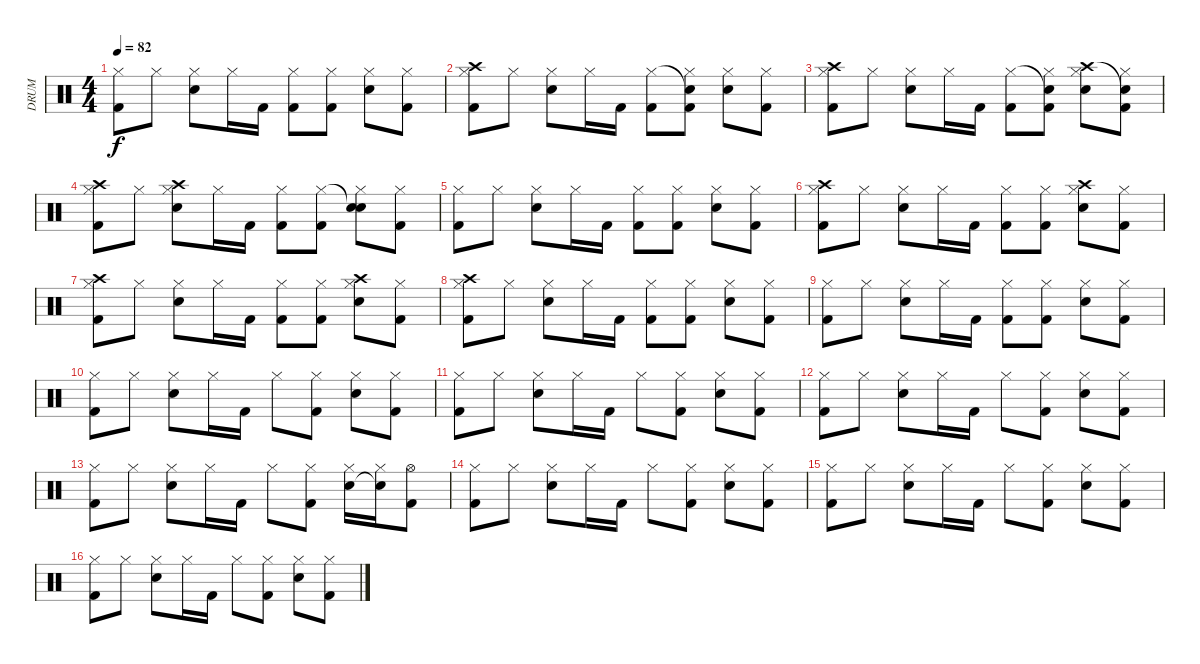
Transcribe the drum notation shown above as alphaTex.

\track ("DRUM" "DRUM") {instrument percussion}
\staff {score}
\articulation defaults
\ts (4 4)
\section ("" "")
\tempo 82
\clef neutral
\ks c
("Hi-Hat (closed)" "Kick (hit) 2").8{dy f} "Hi-Hat (closed)".8 ("Hi-Hat (closed)" "Electric Snare (hit)").8 "Hi-Hat (closed)".16 "Kick (hit) 2".16 ("Hi-Hat (closed)" "Kick (hit) 2").8 ("Hi-Hat (closed)" "Kick (hit) 2").8 ("Hi-Hat (closed)" "Electric Snare (hit)").8 ("Hi-Hat (closed)" "Kick (hit) 2").8 |
("Crash high (hit)" "Hi-Hat (closed)" "Kick (hit) 2").8 "Hi-Hat (closed)".8 ("Hi-Hat (closed)" "Electric Snare (hit)").8 "Hi-Hat (closed)".16 "Kick (hit) 2".16 ("Hi-Hat (closed)" "Kick (hit) 2").8 ("Snare (hit)"{t} "Hi-Hat (closed)" "Kick (hit) 2").8 ("Hi-Hat (closed)" "Electric Snare (hit)").8 ("Hi-Hat (closed)" "Kick (hit) 2").8 |
("Crash high (hit)" "Hi-Hat (closed)" "Kick (hit) 2").8 "Hi-Hat (closed)".8 ("Hi-Hat (closed)" "Electric Snare (hit)").8 "Hi-Hat (closed)".16 "Kick (hit) 2".16 ("Hi-Hat (closed)" "Kick (hit) 2").8 ("Snare (hit)"{t} "Hi-Hat (closed)" "Kick (hit) 2").8 ("Crash high (hit)" "Hi-Hat (closed)" "Electric Snare (hit)").8 ("Snare (hit)"{t} "Hi-Hat (closed)" "Kick (hit) 2").8 |
("Crash high (hit)" "Hi-Hat (closed)" "Kick (hit) 2").8 "Hi-Hat (closed)".8 ("Crash high (hit)" "Hi-Hat (closed)" "Electric Snare (hit)").8 "Hi-Hat (closed)".16 "Kick (hit) 2".16 ("Hi-Hat (closed)" "Kick (hit) 2").8 ("Hi-Hat (closed)" "Kick (hit) 2").8 ("Snare (hit)"{t} "Hi-Hat (closed)" "Electric Snare (hit)").8 ("Hi-Hat (closed)" "Kick (hit) 2").8 |
("Hi-Hat (closed)" "Kick (hit) 2").8 "Hi-Hat (closed)".8 ("Hi-Hat (closed)" "Electric Snare (hit)").8 "Hi-Hat (closed)".16 "Kick (hit) 2".16 ("Hi-Hat (closed)" "Kick (hit) 2").8 ("Hi-Hat (closed)" "Kick (hit) 2").8 ("Hi-Hat (closed)" "Electric Snare (hit)").8 ("Hi-Hat (closed)" "Kick (hit) 2").8 |
("Crash high (hit)" "Hi-Hat (closed)" "Kick (hit) 2").8 "Hi-Hat (closed)".8 ("Hi-Hat (closed)" "Electric Snare (hit)").8 "Hi-Hat (closed)".16 "Kick (hit) 2".16 ("Hi-Hat (closed)" "Kick (hit) 2").8 ("Hi-Hat (closed)" "Kick (hit) 2").8 ("Crash high (hit)" "Hi-Hat (closed)" "Electric Snare (hit)").8 ("Hi-Hat (closed)" "Kick (hit) 2").8 |
("Crash high (hit)" "Hi-Hat (closed)" "Kick (hit) 2").8 "Hi-Hat (closed)".8 ("Hi-Hat (closed)" "Electric Snare (hit)").8 "Hi-Hat (closed)".16 "Kick (hit) 2".16 ("Hi-Hat (closed)" "Kick (hit) 2").8 ("Hi-Hat (closed)" "Kick (hit) 2").8 ("Crash high (hit)" "Hi-Hat (closed)" "Electric Snare (hit)").8 ("Hi-Hat (closed)" "Kick (hit) 2").8 |
("Crash high (hit)" "Hi-Hat (closed)" "Kick (hit) 2").8 "Hi-Hat (closed)".8 ("Hi-Hat (closed)" "Electric Snare (hit)").8 "Hi-Hat (closed)".16 "Kick (hit) 2".16 ("Hi-Hat (closed)" "Kick (hit) 2").8 ("Hi-Hat (closed)" "Kick (hit) 2").8 ("Hi-Hat (closed)" "Electric Snare (hit)").8 ("Hi-Hat (closed)" "Kick (hit) 2").8 |
("Hi-Hat (closed)" "Kick (hit) 2").8 "Hi-Hat (closed)".8 ("Hi-Hat (closed)" "Electric Snare (hit)").8 "Hi-Hat (closed)".16 "Kick (hit) 2".16 ("Hi-Hat (closed)" "Kick (hit) 2").8 ("Hi-Hat (closed)" "Kick (hit) 2").8 ("Hi-Hat (closed)" "Electric Snare (hit)").8 ("Hi-Hat (closed)" "Kick (hit) 2").8 |
("Hi-Hat (closed)" "Kick (hit) 2").8 "Hi-Hat (closed)".8 ("Hi-Hat (closed)" "Electric Snare (hit)").8 "Hi-Hat (closed)".16 "Kick (hit) 2".16 "Hi-Hat (closed)".8 ("Hi-Hat (closed)" "Kick (hit) 2").8 ("Hi-Hat (closed)" "Electric Snare (hit)").8 ("Hi-Hat (closed)" "Kick (hit) 2").8 |
("Hi-Hat (closed)" "Kick (hit) 2").8 "Hi-Hat (closed)".8 ("Hi-Hat (closed)" "Electric Snare (hit)").8 "Hi-Hat (closed)".16 "Kick (hit) 2".16 "Hi-Hat (closed)".8 ("Hi-Hat (closed)" "Kick (hit) 2").8 ("Hi-Hat (closed)" "Electric Snare (hit)").8 ("Hi-Hat (closed)" "Kick (hit) 2").8 |
("Hi-Hat (closed)" "Kick (hit) 2").8 "Hi-Hat (closed)".8 ("Hi-Hat (closed)" "Electric Snare (hit)").8 "Hi-Hat (closed)".16 "Kick (hit) 2".16 "Hi-Hat (closed)".8 ("Hi-Hat (closed)" "Kick (hit) 2").8 ("Hi-Hat (closed)" "Electric Snare (hit)").8 ("Hi-Hat (closed)" "Kick (hit) 2").8 |
("Hi-Hat (closed)" "Kick (hit) 2").8 "Hi-Hat (closed)".8 ("Hi-Hat (closed)" "Electric Snare (hit)").8 "Hi-Hat (closed)".16 "Kick (hit) 2".16 "Hi-Hat (closed)".8 ("Hi-Hat (closed)" "Kick (hit) 2").8 ("Hi-Hat (closed)" "Electric Snare (hit)").16 ("Hi-Hat (closed)" "Snare (hit)"{t}).16 ("Hi-Hat (open)" "Kick (hit) 2").8 |
("Hi-Hat (closed)" "Kick (hit) 2").8 "Hi-Hat (closed)".8 ("Hi-Hat (closed)" "Electric Snare (hit)").8 "Hi-Hat (closed)".16 "Kick (hit) 2".16 "Hi-Hat (closed)".8 ("Hi-Hat (closed)" "Kick (hit) 2").8 ("Hi-Hat (closed)" "Electric Snare (hit)").8 ("Hi-Hat (closed)" "Kick (hit) 2").8 |
("Hi-Hat (closed)" "Kick (hit) 2").8 "Hi-Hat (closed)".8 ("Hi-Hat (closed)" "Electric Snare (hit)").8 "Hi-Hat (closed)".16 "Kick (hit) 2".16 "Hi-Hat (closed)".8 ("Hi-Hat (closed)" "Kick (hit) 2").8 ("Hi-Hat (closed)" "Electric Snare (hit)").8 ("Hi-Hat (closed)" "Kick (hit) 2").8 |
("Hi-Hat (closed)" "Kick (hit) 2").8 "Hi-Hat (closed)".8 ("Hi-Hat (closed)" "Electric Snare (hit)").8 "Hi-Hat (closed)".16 "Kick (hit) 2".16 "Hi-Hat (closed)".8 ("Hi-Hat (closed)" "Kick (hit) 2").8 ("Hi-Hat (closed)" "Electric Snare (hit)").8 ("Hi-Hat (closed)" "Kick (hit) 2").8
